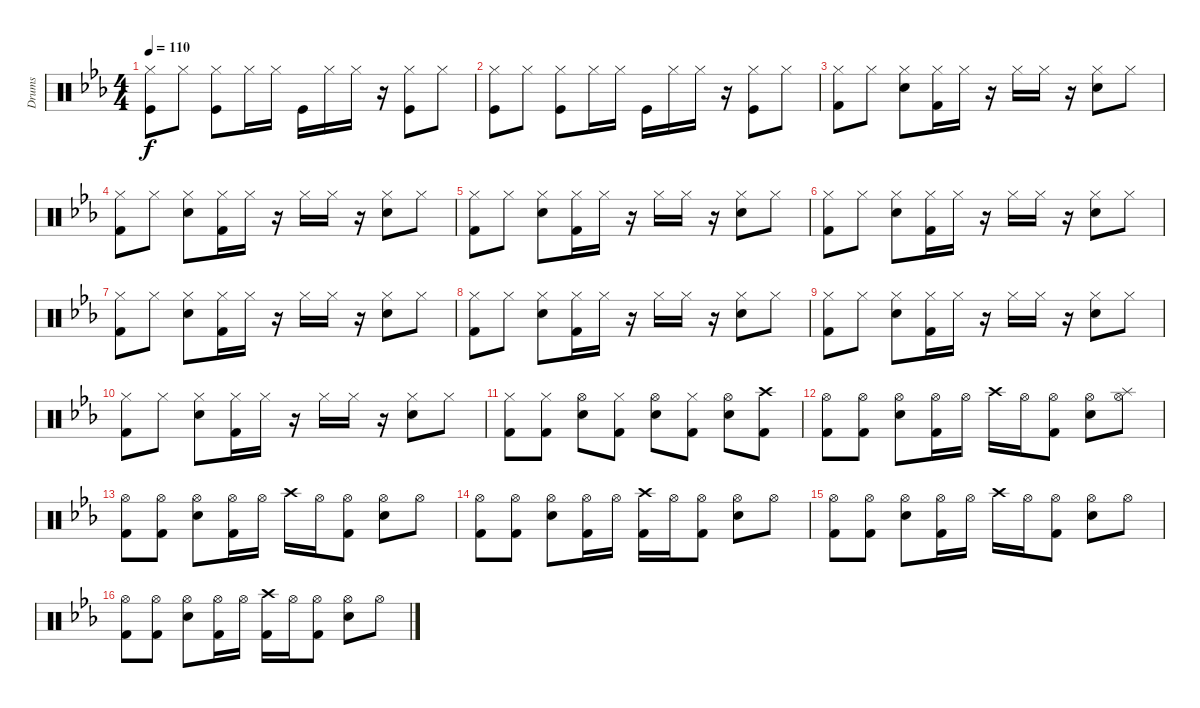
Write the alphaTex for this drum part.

\track ("Drums" "Drums") {instrument percussion}
\staff {score}
\articulation defaults
\ts (4 4)
\tempo 110
\clef neutral
\ks eb
("Hi-Hat (closed)" "Kick (hit)").8{dy f} "Hi-Hat (closed)".8 ("Hi-Hat (closed)" "Kick (hit)").8 "Hi-Hat (closed)".16 "Hi-Hat (closed)".16 "Kick (hit)".16 "Hi-Hat (closed)".16 "Hi-Hat (closed)".16 r.16 ("Hi-Hat (closed)" "Kick (hit)").8 "Hi-Hat (closed)".8 |
("Hi-Hat (closed)" "Kick (hit)").8 "Hi-Hat (closed)".8 ("Hi-Hat (closed)" "Kick (hit)").8 "Hi-Hat (closed)".16 "Hi-Hat (closed)".16 "Kick (hit)".16 "Hi-Hat (closed)".16 "Hi-Hat (closed)".16 r.16 ("Hi-Hat (closed)" "Kick (hit)").8 "Hi-Hat (closed)".8 |
("Hi-Hat (closed)" "Kick (hit) 2").8 "Hi-Hat (closed)".8 ("Hi-Hat (closed)" "Snare (hit) 2").8 ("Hi-Hat (closed)" "Kick (hit) 2").16 "Hi-Hat (closed)".16 r.16 "Hi-Hat (closed)".16 "Hi-Hat (closed)".16 r.16 ("Hi-Hat (closed)" "Snare (hit) 2").8 "Hi-Hat (closed)".8 |
("Hi-Hat (closed)" "Kick (hit) 2").8 "Hi-Hat (closed)".8 ("Hi-Hat (closed)" "Snare (hit) 2").8 ("Hi-Hat (closed)" "Kick (hit) 2").16 "Hi-Hat (closed)".16 r.16 "Hi-Hat (closed)".16 "Hi-Hat (closed)".16 r.16 ("Hi-Hat (closed)" "Snare (hit) 2").8 "Hi-Hat (closed)".8 |
("Hi-Hat (closed)" "Kick (hit) 2").8 "Hi-Hat (closed)".8 ("Hi-Hat (closed)" "Snare (hit) 2").8 ("Hi-Hat (closed)" "Kick (hit) 2").16 "Hi-Hat (closed)".16 r.16 "Hi-Hat (closed)".16 "Hi-Hat (closed)".16 r.16 ("Hi-Hat (closed)" "Snare (hit) 2").8 "Hi-Hat (closed)".8 |
("Hi-Hat (closed)" "Kick (hit) 2").8 "Hi-Hat (closed)".8 ("Hi-Hat (closed)" "Snare (hit) 2").8 ("Hi-Hat (closed)" "Kick (hit) 2").16 "Hi-Hat (closed)".16 r.16 "Hi-Hat (closed)".16 "Hi-Hat (closed)".16 r.16 ("Hi-Hat (closed)" "Snare (hit) 2").8 "Hi-Hat (closed)".8 |
("Hi-Hat (closed)" "Kick (hit) 2").8 "Hi-Hat (closed)".8 ("Hi-Hat (closed)" "Snare (hit) 2").8 ("Hi-Hat (closed)" "Kick (hit) 2").16 "Hi-Hat (closed)".16 r.16 "Hi-Hat (closed)".16 "Hi-Hat (closed)".16 r.16 ("Hi-Hat (closed)" "Snare (hit) 2").8 "Hi-Hat (closed)".8 |
("Hi-Hat (closed)" "Kick (hit) 2").8 "Hi-Hat (closed)".8 ("Hi-Hat (closed)" "Snare (hit) 2").8 ("Hi-Hat (closed)" "Kick (hit) 2").16 "Hi-Hat (closed)".16 r.16 "Hi-Hat (closed)".16 "Hi-Hat (closed)".16 r.16 ("Hi-Hat (closed)" "Snare (hit) 2").8 "Hi-Hat (closed)".8 |
("Hi-Hat (closed)" "Kick (hit) 2").8 "Hi-Hat (closed)".8 ("Hi-Hat (closed)" "Snare (hit) 2").8 ("Hi-Hat (closed)" "Kick (hit) 2").16 "Hi-Hat (closed)".16 r.16 "Hi-Hat (closed)".16 "Hi-Hat (closed)".16 r.16 ("Hi-Hat (closed)" "Snare (hit) 2").8 "Hi-Hat (closed)".8 |
("Hi-Hat (closed)" "Kick (hit) 2").8 "Hi-Hat (closed)".8 ("Hi-Hat (closed)" "Snare (hit) 2").8 ("Hi-Hat (closed)" "Kick (hit) 2").16 "Hi-Hat (closed)".16 r.16 "Hi-Hat (closed)".16 "Hi-Hat (closed)".16 r.16 ("Hi-Hat (closed)" "Snare (hit) 2").8 "Hi-Hat (closed)".8 |
("Hi-Hat (closed)" "Kick (hit) 2").8 ("Hi-Hat (closed)" "Kick (hit) 2").8 ("Hi-Hat (open)" "Snare (hit) 2").8 ("Hi-Hat (closed)" "Kick (hit) 2").8 ("Hi-Hat (open)" "Snare (hit) 2").8 ("Hi-Hat (closed)" "Kick (hit) 2").8 ("Hi-Hat (open)" "Snare (hit) 2").8 ("Crash high (hit)" "Kick (hit) 2").8 |
("Hi-Hat (open)" "Kick (hit) 2").8 ("Hi-Hat (open)" "Kick (hit) 2").8 ("Hi-Hat (open)" "Snare (hit) 2").8 ("Hi-Hat (open)" "Kick (hit) 2").16 "Hi-Hat (open)".16 "Crash high (hit)".16 "Hi-Hat (open)".16 ("Hi-Hat (open)" "Kick (hit) 2").8 ("Hi-Hat (open)" "Snare (hit) 2").8 ("Hi-Hat (open)" "Splash (hit)").8 |
("Hi-Hat (open)" "Kick (hit) 2").8 ("Hi-Hat (open)" "Kick (hit) 2").8 ("Hi-Hat (open)" "Snare (hit) 2").8 ("Hi-Hat (open)" "Kick (hit) 2").16 "Hi-Hat (open)".16 "Crash high (hit)".16 "Hi-Hat (open)".16 ("Hi-Hat (open)" "Kick (hit) 2").8 ("Hi-Hat (open)" "Snare (hit) 2").8 "Hi-Hat (open)".8 |
("Hi-Hat (open)" "Kick (hit) 2").8 ("Hi-Hat (open)" "Kick (hit) 2").8 ("Hi-Hat (open)" "Snare (hit) 2").8 ("Hi-Hat (open)" "Kick (hit) 2").16 "Hi-Hat (open)".16 ("Crash high (hit)" "Kick (hit) 2").16 "Hi-Hat (open)".16 ("Hi-Hat (open)" "Kick (hit) 2").8 ("Hi-Hat (open)" "Snare (hit) 2").8 "Hi-Hat (open)".8 |
("Hi-Hat (open)" "Kick (hit) 2").8 ("Hi-Hat (open)" "Kick (hit) 2").8 ("Hi-Hat (open)" "Snare (hit) 2").8 ("Hi-Hat (open)" "Kick (hit) 2").16 "Hi-Hat (open)".16 "Crash high (hit)".16 "Hi-Hat (open)".16 ("Hi-Hat (open)" "Kick (hit) 2").8 ("Hi-Hat (open)" "Snare (hit) 2").8 "Hi-Hat (open)".8 |
("Hi-Hat (open)" "Kick (hit) 2").8 ("Hi-Hat (open)" "Kick (hit) 2").8 ("Hi-Hat (open)" "Snare (hit) 2").8 ("Hi-Hat (open)" "Kick (hit) 2").16 "Hi-Hat (open)".16 ("Crash high (hit)" "Kick (hit) 2").16 "Hi-Hat (open)".16 ("Hi-Hat (open)" "Kick (hit) 2").8 ("Hi-Hat (open)" "Snare (hit) 2").8 "Hi-Hat (open)".8
